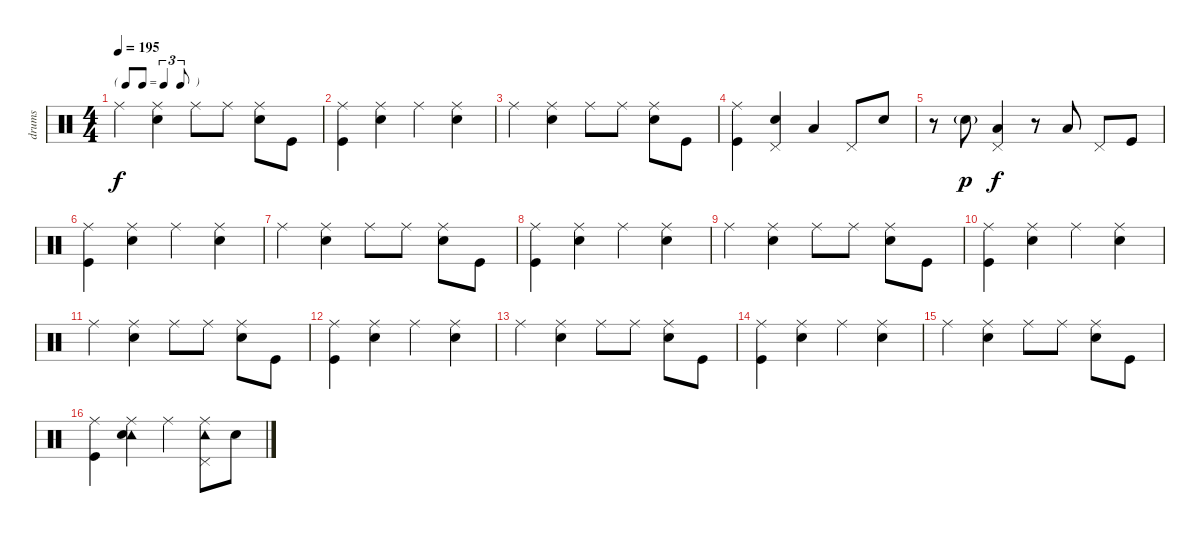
\track ("drums" "drums") {instrument percussion}
\staff {score}
\articulation defaults
\ts (4 4)
\tf triplet8th
\tempo 195
\clef neutral
\ks c "Ride (middle)".4{dy f}
("Ride (middle)" "Snare (hit) 2").4 "Ride (middle)".8 "Ride (middle)".8 ("Ride (middle)" "Snare (hit) 2").8 "Kick (hit)".8 |
("Ride (middle)" "Kick (hit)").4 ("Ride (middle)" "Snare (hit) 2").4 "Ride (middle)".4 ("Ride (middle)" "Snare (hit) 2").4 |
"Ride (middle)".4 ("Ride (middle)" "Snare (hit) 2").4 "Ride (middle)".8 "Ride (middle)".8 ("Ride (middle)" "Snare (hit) 2").8 "Kick (hit)".8 |
("Ride (middle)" "Kick (hit)").4 ("Pedal Hi-Hat (hit)" "Snare (hit) 2").4 "Low Tom (hit)".4 "Pedal Hi-Hat (hit)".8 "Snare (hit) 2".8 |
r.8 "Snare (hit) 2"{g}.8{dy p} ("Pedal Hi-Hat (hit)" "Low Tom (hit)").4{dy f} r.8 "Low Tom (hit)".8 "Pedal Hi-Hat (hit)".8 "Kick (hit)".8 |
("Ride (middle)" "Kick (hit)").4 ("Ride (middle)" "Snare (hit) 2").4 "Ride (middle)".4 ("Ride (middle)" "Snare (hit) 2").4 |
"Ride (middle)".4 ("Ride (middle)" "Snare (hit) 2").4 "Ride (middle)".8 "Ride (middle)".8 ("Ride (middle)" "Snare (hit) 2").8 "Kick (hit)".8 |
("Ride (middle)" "Kick (hit)").4 ("Ride (middle)" "Snare (hit) 2").4 "Ride (middle)".4 ("Ride (middle)" "Snare (hit) 2").4 |
"Ride (middle)".4 ("Ride (middle)" "Snare (hit) 2").4 "Ride (middle)".8 "Ride (middle)".8 ("Ride (middle)" "Snare (hit) 2").8 "Kick (hit)".8 |
("Ride (middle)" "Kick (hit)").4 ("Ride (middle)" "Snare (hit) 2").4 "Ride (middle)".4 ("Ride (middle)" "Snare (hit) 2").4 |
"Ride (middle)".4 ("Ride (middle)" "Snare (hit) 2").4 "Ride (middle)".8 "Ride (middle)".8 ("Ride (middle)" "Snare (hit) 2").8 "Kick (hit)".8 |
("Ride (middle)" "Kick (hit)").4 ("Ride (middle)" "Snare (hit) 2").4 "Ride (middle)".4 ("Ride (middle)" "Snare (hit) 2").4 |
"Ride (middle)".4 ("Ride (middle)" "Snare (hit) 2").4 "Ride (middle)".8 "Ride (middle)".8 ("Ride (middle)" "Snare (hit) 2").8 "Kick (hit)".8 |
("Ride (middle)" "Kick (hit)").4 ("Ride (middle)" "Snare (hit) 2").4 "Ride (middle)".4 ("Ride (middle)" "Snare (hit) 2").4 |
"Ride (middle)".4 ("Ride (middle)" "Snare (hit) 2").4 "Ride (middle)".8 "Ride (middle)".8 ("Ride (middle)" "Snare (hit) 2").8 "Kick (hit)".8 |
("Ride (middle)" "Kick (hit)").4 ("Tambourine (hit)" "Ride (middle)" "Snare (hit) 2").4 "Ride (middle)".4 ("Tambourine (hit)" "Ride (middle)" "Pedal Hi-Hat (hit)").8 "Snare (hit) 2".8
